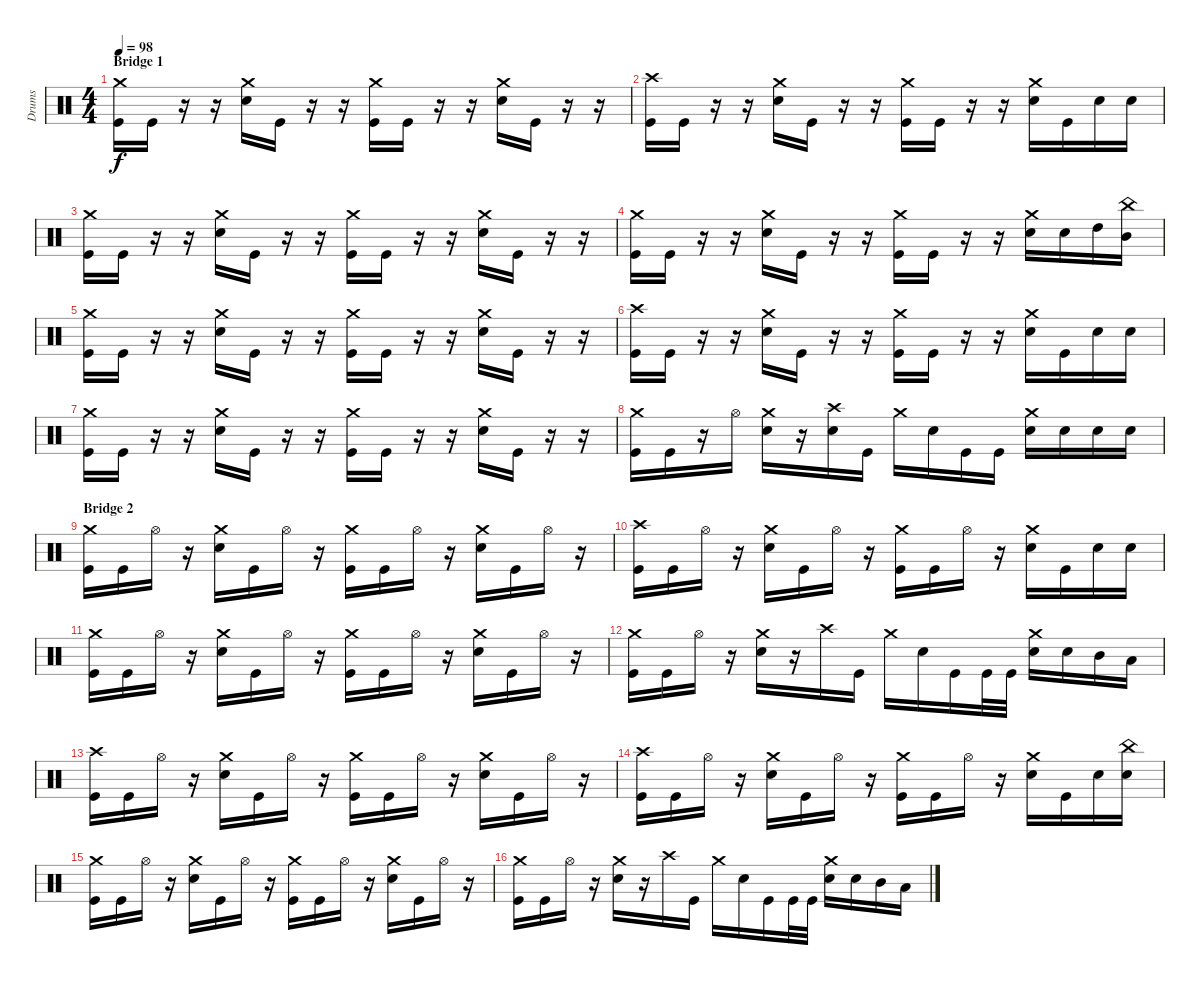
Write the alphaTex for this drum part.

\track ("Drums" "Drums") {instrument percussion}
\staff {score}
\articulation defaults
\ts (4 4)
\section ("" "Bridge 1")
\tempo 98
\clef neutral
\ks c
("Crash medium (hit)" "Kick (hit)").16{dy f} "Kick (hit)".16 r.16 r.16 ("Crash medium (hit)" "Electric Snare (hit)").16 "Kick (hit)".16 r.16 r.16 ("Crash medium (hit)" "Kick (hit)").16 "Kick (hit)".16 r.16 r.16 ("Crash medium (hit)" "Electric Snare (hit)").16 "Kick (hit)".16 r.16 r.16 |
("Crash high (hit)" "Kick (hit)").16 "Kick (hit)".16 r.16 r.16 ("Crash medium (hit)" "Electric Snare (hit)").16 "Kick (hit)".16 r.16 r.16 ("Crash medium (hit)" "Kick (hit)").16 "Kick (hit)".16 r.16 r.16 ("Crash medium (hit)" "Electric Snare (hit)").16 "Kick (hit)".16 "Electric Snare (hit)".16 "Electric Snare (hit)".16 |
("Crash medium (hit)" "Kick (hit)").16 "Kick (hit)".16 r.16 r.16 ("Crash medium (hit)" "Electric Snare (hit)").16 "Kick (hit)".16 r.16 r.16 ("Crash medium (hit)" "Kick (hit)").16 "Kick (hit)".16 r.16 r.16 ("Crash medium (hit)" "Electric Snare (hit)").16 "Kick (hit)".16 r.16 r.16 |
("Crash medium (hit)" "Kick (hit)").16 "Kick (hit)".16 r.16 r.16 ("Crash medium (hit)" "Electric Snare (hit)").16 "Kick (hit)".16 r.16 r.16 ("Crash medium (hit)" "Kick (hit)").16 "Kick (hit)".16 r.16 r.16 ("Crash medium (hit)" "Electric Snare (hit)").16 "Electric Snare (hit)".16 "High Tom (hit)".16 ("China (hit)" "Mid Tom (hit)").16 |
("Crash medium (hit)" "Kick (hit)").16 "Kick (hit)".16 r.16 r.16 ("Crash medium (hit)" "Electric Snare (hit)").16 "Kick (hit)".16 r.16 r.16 ("Crash medium (hit)" "Kick (hit)").16 "Kick (hit)".16 r.16 r.16 ("Crash medium (hit)" "Electric Snare (hit)").16 "Kick (hit)".16 r.16 r.16 |
("Crash high (hit)" "Kick (hit)").16 "Kick (hit)".16 r.16 r.16 ("Crash medium (hit)" "Electric Snare (hit)").16 "Kick (hit)".16 r.16 r.16 ("Crash medium (hit)" "Kick (hit)").16 "Kick (hit)".16 r.16 r.16 ("Crash medium (hit)" "Electric Snare (hit)").16 "Kick (hit)".16 "Electric Snare (hit)".16 "Electric Snare (hit)".16 |
("Crash medium (hit)" "Kick (hit)").16 "Kick (hit)".16 r.16 r.16 ("Crash medium (hit)" "Electric Snare (hit)").16 "Kick (hit)".16 r.16 r.16 ("Crash medium (hit)" "Kick (hit)").16 "Kick (hit)".16 r.16 r.16 ("Crash medium (hit)" "Electric Snare (hit)").16 "Kick (hit)".16 r.16 r.16 |
("Crash medium (hit)" "Kick (hit)").16 "Kick (hit)".16 r.16 "Hi-Hat (open)".16 ("Crash medium (hit)" "Electric Snare (hit)").16 r.16 ("Crash high (hit)" "Electric Snare (hit)").16 "Kick (hit)".16 "Crash medium (hit)".16 "Electric Snare (hit)".16 "Kick (hit)".16 "Kick (hit)".16 ("Crash medium (hit)" "Electric Snare (hit)").16 "Electric Snare (hit)".16 "Electric Snare (hit)".16 "Electric Snare (hit)".16 |
\section ("" "Bridge 2")
("Crash medium (hit)" "Kick (hit)").16 "Kick (hit)".16 "Hi-Hat (open)".16 r.16 ("Crash medium (hit)" "Electric Snare (hit)").16 "Kick (hit)".16 "Hi-Hat (open)".16 r.16 ("Crash medium (hit)" "Kick (hit)").16 "Kick (hit)".16 "Hi-Hat (open)".16 r.16 ("Crash medium (hit)" "Electric Snare (hit)").16 "Kick (hit)".16 "Hi-Hat (open)".16 r.16 |
("Crash high (hit)" "Kick (hit)").16 "Kick (hit)".16 "Hi-Hat (open)".16 r.16 ("Crash medium (hit)" "Electric Snare (hit)").16 "Kick (hit)".16 "Hi-Hat (open)".16 r.16 ("Crash medium (hit)" "Kick (hit)").16 "Kick (hit)".16 "Hi-Hat (open)".16 r.16 ("Crash medium (hit)" "Electric Snare (hit)").16 "Kick (hit)".16 "Electric Snare (hit)".16 "Electric Snare (hit)".16 |
("Crash medium (hit)" "Kick (hit)").16 "Kick (hit)".16 "Hi-Hat (open)".16 r.16 ("Crash medium (hit)" "Electric Snare (hit)").16 "Kick (hit)".16 "Hi-Hat (open)".16 r.16 ("Crash medium (hit)" "Kick (hit)").16 "Kick (hit)".16 "Hi-Hat (open)".16 r.16 ("Crash medium (hit)" "Electric Snare (hit)").16 "Kick (hit)".16 "Hi-Hat (open)".16 r.16 |
("Crash medium (hit)" "Kick (hit)").16 "Kick (hit)".16 "Hi-Hat (open)".16 r.16 ("Crash medium (hit)" "Electric Snare (hit)").16 r.16 "Crash high (hit)".16 "Kick (hit)".16 "Crash medium (hit)".16 "Electric Snare (hit)".16 "Kick (hit)".16 "Kick (hit)".32 "Kick (hit)".32 ("Crash medium (hit)" "Electric Snare (hit)").16 "Electric Snare (hit)".16 "Mid Tom (hit)".16 "Low Tom (hit)".16 |
("Crash high (hit)" "Kick (hit)").16 "Kick (hit)".16 "Hi-Hat (open)".16 r.16 ("Crash medium (hit)" "Electric Snare (hit)").16 "Kick (hit)".16 "Hi-Hat (open)".16 r.16 ("Crash medium (hit)" "Kick (hit)").16 "Kick (hit)".16 "Hi-Hat (open)".16 r.16 ("Crash medium (hit)" "Electric Snare (hit)").16 "Kick (hit)".16 "Hi-Hat (open)".16 r.16 |
("Crash high (hit)" "Kick (hit)").16 "Kick (hit)".16 "Hi-Hat (open)".16 r.16 ("Crash medium (hit)" "Electric Snare (hit)").16 "Kick (hit)".16 "Hi-Hat (open)".16 r.16 ("Crash medium (hit)" "Kick (hit)").16 "Kick (hit)".16 "Hi-Hat (open)".16 r.16 ("Crash medium (hit)" "Electric Snare (hit)").16 "Kick (hit)".16 "Electric Snare (hit)".16 ("China (hit)" "Electric Snare (hit)").16 |
("Crash medium (hit)" "Kick (hit)").16 "Kick (hit)".16 "Hi-Hat (open)".16 r.16 ("Crash medium (hit)" "Electric Snare (hit)").16 "Kick (hit)".16 "Hi-Hat (open)".16 r.16 ("Crash medium (hit)" "Kick (hit)").16 "Kick (hit)".16 "Hi-Hat (open)".16 r.16 ("Crash medium (hit)" "Electric Snare (hit)").16 "Kick (hit)".16 "Hi-Hat (open)".16 r.16 |
("Crash medium (hit)" "Kick (hit)").16 "Kick (hit)".16 "Hi-Hat (open)".16 r.16 ("Crash medium (hit)" "Electric Snare (hit)").16 r.16 "Crash high (hit)".16 "Kick (hit)".16 "Crash medium (hit)".16 "Electric Snare (hit)".16 "Kick (hit)".16 "Kick (hit)".32 "Kick (hit)".32 ("Crash medium (hit)" "Electric Snare (hit)").16 "Electric Snare (hit)".16 "Mid Tom (hit)".16 "Low Tom (hit)".16
